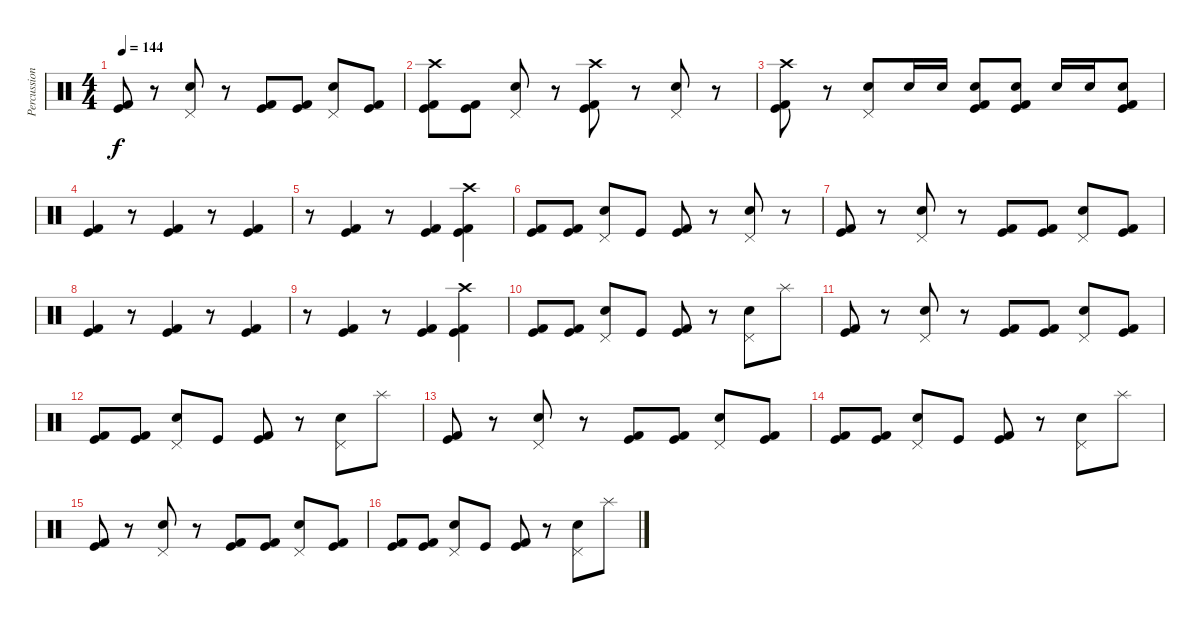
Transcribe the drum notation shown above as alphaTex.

\track ("Percussions" "Percussion") {instrument percussion}
\staff {score}
\articulation defaults
\ts (4 4)
\tempo 144
\clef neutral
\ks c
("Kick (hit)" "Kick (hit) 2").8{dy f} r.8 ("Pedal Hi-Hat (hit)" "Snare (hit) 2").8 r.8 ("Kick (hit)" "Kick (hit) 2").8 ("Kick (hit)" "Kick (hit) 2").8 ("Pedal Hi-Hat (hit)" "Snare (hit) 2").8 ("Kick (hit)" "Kick (hit) 2").8 |
("Crash high (hit)" "Kick (hit)" "Kick (hit) 2").8 ("Kick (hit)" "Kick (hit) 2").8 ("Pedal Hi-Hat (hit)" "Snare (hit) 2").8 r.8 ("Crash high (hit)" "Kick (hit)" "Kick (hit) 2").8 r.8 ("Pedal Hi-Hat (hit)" "Snare (hit) 2").8 r.8 |
("Crash high (hit)" "Kick (hit)" "Kick (hit) 2").8 r.8 ("Electric Snare (hit)" "Pedal Hi-Hat (hit)").8 "Electric Snare (hit)".16 "Electric Snare (hit)".16 ("Electric Snare (hit)" "Kick (hit)" "Kick (hit) 2").8 ("Electric Snare (hit)" "Kick (hit)" "Kick (hit) 2").8 "Electric Snare (hit)".16 "Electric Snare (hit)".16 ("Electric Snare (hit)" "Kick (hit)" "Kick (hit) 2").8 |
("Kick (hit)" "Kick (hit) 2").4 r.8 ("Kick (hit)" "Kick (hit) 2").4 r.8 ("Kick (hit)" "Kick (hit) 2").4 |
r.8 ("Kick (hit)" "Kick (hit) 2").4 r.8 ("Kick (hit)" "Kick (hit) 2").4 ("Crash high (hit)" "Kick (hit)" "Kick (hit) 2").4 |
("Kick (hit)" "Kick (hit) 2").8 ("Kick (hit)" "Kick (hit) 2").8 ("Pedal Hi-Hat (hit)" "Snare (hit) 2").8 "Kick (hit)".8 ("Kick (hit)" "Kick (hit) 2").8 r.8 ("Pedal Hi-Hat (hit)" "Snare (hit) 2").8 r.8 |
("Kick (hit)" "Kick (hit) 2").8 r.8 ("Pedal Hi-Hat (hit)" "Snare (hit) 2").8 r.8 ("Kick (hit)" "Kick (hit) 2").8 ("Kick (hit)" "Kick (hit) 2").8 ("Pedal Hi-Hat (hit)" "Snare (hit) 2").8 ("Kick (hit)" "Kick (hit) 2").8 |
("Kick (hit)" "Kick (hit) 2").4 r.8 ("Kick (hit)" "Kick (hit) 2").4 r.8 ("Kick (hit)" "Kick (hit) 2").4 |
r.8 ("Kick (hit)" "Kick (hit) 2").4 r.8 ("Kick (hit)" "Kick (hit) 2").4 ("Crash high (hit)" "Kick (hit)" "Kick (hit) 2").4 |
("Kick (hit)" "Kick (hit) 2").8 ("Kick (hit)" "Kick (hit) 2").8 ("Pedal Hi-Hat (hit)" "Snare (hit) 2").8 "Kick (hit)".8 ("Kick (hit)" "Kick (hit) 2").8 r.8 ("Pedal Hi-Hat (hit)" "Snare (hit) 2").8 "Splash (hit)".8 |
("Kick (hit)" "Kick (hit) 2").8 r.8 ("Pedal Hi-Hat (hit)" "Snare (hit) 2").8 r.8 ("Kick (hit)" "Kick (hit) 2").8 ("Kick (hit)" "Kick (hit) 2").8 ("Pedal Hi-Hat (hit)" "Snare (hit) 2").8 ("Kick (hit)" "Kick (hit) 2").8 |
("Kick (hit)" "Kick (hit) 2").8 ("Kick (hit)" "Kick (hit) 2").8 ("Pedal Hi-Hat (hit)" "Snare (hit) 2").8 "Kick (hit)".8 ("Kick (hit)" "Kick (hit) 2").8 r.8 ("Pedal Hi-Hat (hit)" "Snare (hit) 2").8 "Splash (hit)".8 |
("Kick (hit)" "Kick (hit) 2").8 r.8 ("Pedal Hi-Hat (hit)" "Snare (hit) 2").8 r.8 ("Kick (hit)" "Kick (hit) 2").8 ("Kick (hit)" "Kick (hit) 2").8 ("Pedal Hi-Hat (hit)" "Snare (hit) 2").8 ("Kick (hit)" "Kick (hit) 2").8 |
("Kick (hit)" "Kick (hit) 2").8 ("Kick (hit)" "Kick (hit) 2").8 ("Pedal Hi-Hat (hit)" "Snare (hit) 2").8 "Kick (hit)".8 ("Kick (hit)" "Kick (hit) 2").8 r.8 ("Pedal Hi-Hat (hit)" "Snare (hit) 2").8 "Splash (hit)".8 |
("Kick (hit)" "Kick (hit) 2").8 r.8 ("Pedal Hi-Hat (hit)" "Snare (hit) 2").8 r.8 ("Kick (hit)" "Kick (hit) 2").8 ("Kick (hit)" "Kick (hit) 2").8 ("Pedal Hi-Hat (hit)" "Snare (hit) 2").8 ("Kick (hit)" "Kick (hit) 2").8 |
("Kick (hit)" "Kick (hit) 2").8 ("Kick (hit)" "Kick (hit) 2").8 ("Pedal Hi-Hat (hit)" "Snare (hit) 2").8 "Kick (hit)".8 ("Kick (hit)" "Kick (hit) 2").8 r.8 ("Pedal Hi-Hat (hit)" "Snare (hit) 2").8 "Splash (hit)".8
